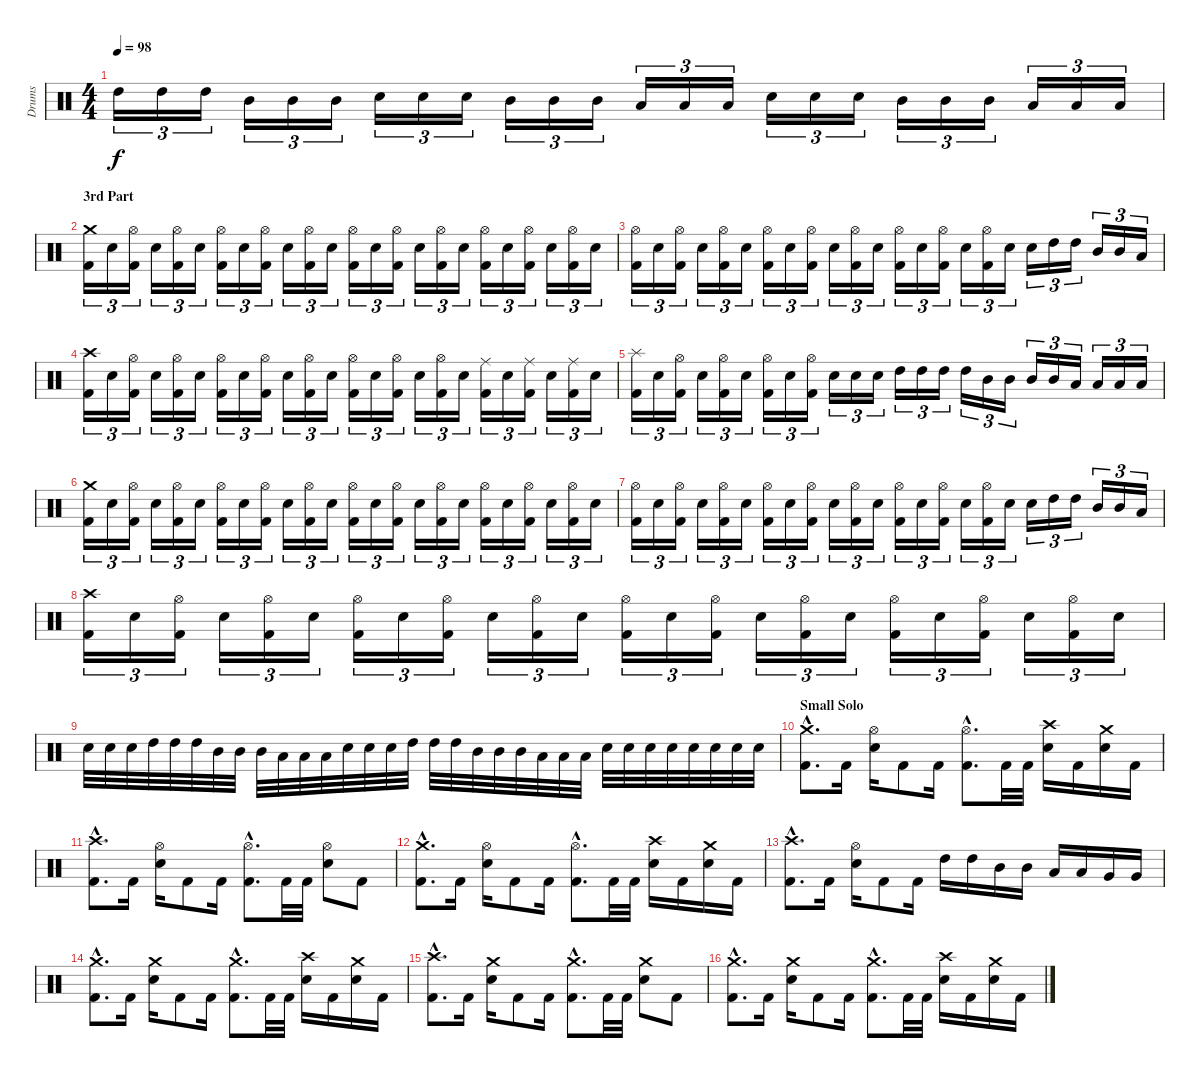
\track ("Drums" "Drums") {instrument percussion}
\staff {score}
\articulation defaults
\ts (4 4)
\tempo 98
\clef neutral
\ks c "High Tom (hit)".16{tu (3 2) dy f} "High Tom (hit)".16{tu (3 2)} "High Tom (hit)".16{tu (3 2)} "Mid Tom (hit)".16{tu (3 2)} "Mid Tom (hit)".16{tu (3 2)} "Mid Tom (hit)".16{tu (3 2)} "Electric Snare (hit)".16{tu (3 2)} "Electric Snare (hit)".16{tu (3 2)} "Electric Snare (hit)".16{tu (3 2)} "Mid Tom (hit)".16{tu (3 2)} "Mid Tom (hit)".16{tu (3 2)} "Mid Tom (hit)".16{tu (3 2)} "Low Tom (hit)".16{tu (3 2)} "Low Tom (hit)".16{tu (3 2)} "Low Tom (hit)".16{tu (3 2)} "Electric Snare (hit)".16{tu (3 2)} "Electric Snare (hit)".16{tu (3 2)} "Electric Snare (hit)".16{tu (3 2)} "Mid Tom (hit)".16{tu (3 2)} "Mid Tom (hit)".16{tu (3 2)} "Mid Tom (hit)".16{tu (3 2)} "Low Tom (hit)".16{tu (3 2)} "Low Tom (hit)".16{tu (3 2)} "Low Tom (hit)".16{tu (3 2)}
|
\section ("" "3rd Part")
("Kick (hit) 2" "Crash medium (hit)").16{tu (3 2)} "Electric Snare (hit)".16{tu (3 2)} ("Kick (hit) 2" "Hi-Hat (open)").16{tu (3 2)} "Electric Snare (hit)".16{tu (3 2)} ("Kick (hit) 2" "Hi-Hat (open)").16{tu (3 2)} "Electric Snare (hit)".16{tu (3 2)} ("Kick (hit) 2" "Hi-Hat (open)").16{tu (3 2)} "Electric Snare (hit)".16{tu (3 2)} ("Kick (hit) 2" "Hi-Hat (open)").16{tu (3 2)} "Electric Snare (hit)".16{tu (3 2)} ("Kick (hit) 2" "Hi-Hat (open)").16{tu (3 2)} "Electric Snare (hit)".16{tu (3 2)} ("Kick (hit) 2" "Hi-Hat (open)").16{tu (3 2)} "Electric Snare (hit)".16{tu (3 2)} ("Kick (hit) 2" "Hi-Hat (open)").16{tu (3 2)} "Electric Snare (hit)".16{tu (3 2)} ("Kick (hit) 2" "Hi-Hat (open)").16{tu (3 2)} "Electric Snare (hit)".16{tu (3 2)} ("Kick (hit) 2" "Hi-Hat (open)").16{tu (3 2)} "Electric Snare (hit)".16{tu (3 2)} ("Kick (hit) 2" "Hi-Hat (open)").16{tu (3 2)} "Electric Snare (hit)".16{tu (3 2)} ("Kick (hit) 2" "Hi-Hat (open)").16{tu (3 2)} "Electric Snare (hit)".16{tu (3 2)} |
("Kick (hit) 2" "Hi-Hat (open)").16{tu (3 2)} "Electric Snare (hit)".16{tu (3 2)} ("Kick (hit) 2" "Hi-Hat (open)").16{tu (3 2)} "Electric Snare (hit)".16{tu (3 2)} ("Kick (hit) 2" "Hi-Hat (open)").16{tu (3 2)} "Electric Snare (hit)".16{tu (3 2)} ("Kick (hit) 2" "Hi-Hat (open)").16{tu (3 2)} "Electric Snare (hit)".16{tu (3 2)} ("Kick (hit) 2" "Hi-Hat (open)").16{tu (3 2)} "Electric Snare (hit)".16{tu (3 2)} ("Kick (hit) 2" "Hi-Hat (open)").16{tu (3 2)} "Electric Snare (hit)".16{tu (3 2)} ("Kick (hit) 2" "Hi-Hat (open)").16{tu (3 2)} "Electric Snare (hit)".16{tu (3 2)} ("Kick (hit) 2" "Hi-Hat (open)").16{tu (3 2)} "Electric Snare (hit)".16{tu (3 2)} ("Kick (hit) 2" "Hi-Hat (open)").16{tu (3 2)} "Electric Snare (hit)".16{tu (3 2)} "Electric Snare (hit)".16{tu (3 2)} "High Tom (hit)".16{tu (3 2)} "High Tom (hit)".16{tu (3 2)} "Mid Tom (hit)".16{tu (3 2)} "Mid Tom (hit)".16{tu (3 2)} "Low Tom (hit)".16{tu (3 2)} |
("Kick (hit) 2" "Crash high (hit)").16{tu (3 2)} "Electric Snare (hit)".16{tu (3 2)} ("Kick (hit) 2" "Hi-Hat (open)").16{tu (3 2)} "Electric Snare (hit)".16{tu (3 2)} ("Kick (hit) 2" "Hi-Hat (open)").16{tu (3 2)} "Electric Snare (hit)".16{tu (3 2)} ("Kick (hit) 2" "Hi-Hat (open)").16{tu (3 2)} "Electric Snare (hit)".16{tu (3 2)} ("Kick (hit) 2" "Hi-Hat (open)").16{tu (3 2)} "Electric Snare (hit)".16{tu (3 2)} ("Kick (hit) 2" "Hi-Hat (open)").16{tu (3 2)} "Electric Snare (hit)".16{tu (3 2)} ("Kick (hit) 2" "Hi-Hat (open)").16{tu (3 2)} "Electric Snare (hit)".16{tu (3 2)} ("Kick (hit) 2" "Hi-Hat (open)").16{tu (3 2)} "Electric Snare (hit)".16{tu (3 2)} ("Kick (hit) 2" "Hi-Hat (open)").16{tu (3 2)} "Electric Snare (hit)".16{tu (3 2)} ("Kick (hit) 2" "Ride (middle)").16{tu (3 2)} "Electric Snare (hit)".16{tu (3 2)} ("Kick (hit) 2" "Ride (middle)").16{tu (3 2)} "Electric Snare (hit)".16{tu (3 2)} ("Kick (hit) 2" "Ride (middle)").16{tu (3 2)} "Electric Snare (hit)".16{tu (3 2)} |
("Kick (hit) 2" "Splash (hit)").16{tu (3 2)} "Electric Snare (hit)".16{tu (3 2)} ("Kick (hit) 2" "Hi-Hat (open)").16{tu (3 2)} "Electric Snare (hit)".16{tu (3 2)} ("Kick (hit) 2" "Hi-Hat (open)").16{tu (3 2)} "Electric Snare (hit)".16{tu (3 2)} ("Kick (hit) 2" "Hi-Hat (open)").16{tu (3 2)} "Electric Snare (hit)".16{tu (3 2)} ("Kick (hit) 2" "Hi-Hat (open)").16{tu (3 2)} "Electric Snare (hit)".16{tu (3 2)} "Electric Snare (hit)".16{tu (3 2)} "Electric Snare (hit)".16{tu (3 2)} "High Tom (hit)".16{tu (3 2)} "High Tom (hit)".16{tu (3 2)} "High Tom (hit)".16{tu (3 2)} "High Tom (hit)".16{tu (3 2)} "Mid Tom (hit)".16{tu (3 2)} "Mid Tom (hit)".16{tu (3 2)} "Mid Tom (hit)".16{tu (3 2)} "Mid Tom (hit)".16{tu (3 2)} "Low Tom (hit)".16{tu (3 2)} "Low Tom (hit)".16{tu (3 2)} "Low Tom (hit)".16{tu (3 2)} "Low Tom (hit)".16{tu (3 2)} |
("Kick (hit) 2" "Crash medium (hit)").16{tu (3 2)} "Electric Snare (hit)".16{tu (3 2)} ("Kick (hit) 2" "Hi-Hat (open)").16{tu (3 2)} "Electric Snare (hit)".16{tu (3 2)} ("Kick (hit) 2" "Hi-Hat (open)").16{tu (3 2)} "Electric Snare (hit)".16{tu (3 2)} ("Kick (hit) 2" "Hi-Hat (open)").16{tu (3 2)} "Electric Snare (hit)".16{tu (3 2)} ("Kick (hit) 2" "Hi-Hat (open)").16{tu (3 2)} "Electric Snare (hit)".16{tu (3 2)} ("Kick (hit) 2" "Hi-Hat (open)").16{tu (3 2)} "Electric Snare (hit)".16{tu (3 2)} ("Kick (hit) 2" "Hi-Hat (open)").16{tu (3 2)} "Electric Snare (hit)".16{tu (3 2)} ("Kick (hit) 2" "Hi-Hat (open)").16{tu (3 2)} "Electric Snare (hit)".16{tu (3 2)} ("Kick (hit) 2" "Hi-Hat (open)").16{tu (3 2)} "Electric Snare (hit)".16{tu (3 2)} ("Kick (hit) 2" "Hi-Hat (open)").16{tu (3 2)} "Electric Snare (hit)".16{tu (3 2)} ("Kick (hit) 2" "Hi-Hat (open)").16{tu (3 2)} "Electric Snare (hit)".16{tu (3 2)} ("Kick (hit) 2" "Hi-Hat (open)").16{tu (3 2)} "Electric Snare (hit)".16{tu (3 2)} |
("Kick (hit) 2" "Hi-Hat (open)").16{tu (3 2)} "Electric Snare (hit)".16{tu (3 2)} ("Kick (hit) 2" "Hi-Hat (open)").16{tu (3 2)} "Electric Snare (hit)".16{tu (3 2)} ("Kick (hit) 2" "Hi-Hat (open)").16{tu (3 2)} "Electric Snare (hit)".16{tu (3 2)} ("Kick (hit) 2" "Hi-Hat (open)").16{tu (3 2)} "Electric Snare (hit)".16{tu (3 2)} ("Kick (hit) 2" "Hi-Hat (open)").16{tu (3 2)} "Electric Snare (hit)".16{tu (3 2)} ("Kick (hit) 2" "Hi-Hat (open)").16{tu (3 2)} "Electric Snare (hit)".16{tu (3 2)} ("Kick (hit) 2" "Hi-Hat (open)").16{tu (3 2)} "Electric Snare (hit)".16{tu (3 2)} ("Kick (hit) 2" "Hi-Hat (open)").16{tu (3 2)} "Electric Snare (hit)".16{tu (3 2)} ("Kick (hit) 2" "Hi-Hat (open)").16{tu (3 2)} "Electric Snare (hit)".16{tu (3 2)} "Electric Snare (hit)".16{tu (3 2)} "High Tom (hit)".16{tu (3 2)} "High Tom (hit)".16{tu (3 2)} "Mid Tom (hit)".16{tu (3 2)} "Mid Tom (hit)".16{tu (3 2)} "Low Tom (hit)".16{tu (3 2)} |
("Kick (hit) 2" "Crash high (hit)").16{tu (3 2)} "Electric Snare (hit)".16{tu (3 2)} ("Kick (hit) 2" "Hi-Hat (open)").16{tu (3 2)} "Electric Snare (hit)".16{tu (3 2)} ("Kick (hit) 2" "Hi-Hat (open)").16{tu (3 2)} "Electric Snare (hit)".16{tu (3 2)} ("Kick (hit) 2" "Hi-Hat (open)").16{tu (3 2)} "Electric Snare (hit)".16{tu (3 2)} ("Kick (hit) 2" "Hi-Hat (open)").16{tu (3 2)} "Electric Snare (hit)".16{tu (3 2)} ("Kick (hit) 2" "Hi-Hat (open)").16{tu (3 2)} "Electric Snare (hit)".16{tu (3 2)} ("Kick (hit) 2" "Hi-Hat (open)").16{tu (3 2)} "Electric Snare (hit)".16{tu (3 2)} ("Kick (hit) 2" "Hi-Hat (open)").16{tu (3 2)} "Electric Snare (hit)".16{tu (3 2)} ("Kick (hit) 2" "Hi-Hat (open)").16{tu (3 2)} "Electric Snare (hit)".16{tu (3 2)} ("Kick (hit) 2" "Hi-Hat (open)").16{tu (3 2)} "Electric Snare (hit)".16{tu (3 2)} ("Kick (hit) 2" "Hi-Hat (open)").16{tu (3 2)} "Electric Snare (hit)".16{tu (3 2)} ("Kick (hit) 2" "Hi-Hat (open)").16{tu (3 2)} "Electric Snare (hit)".16{tu (3 2)} |
"Electric Snare (hit)".32 "Electric Snare (hit)".32 "Electric Snare (hit)".32 "High Tom (hit)".32 "High Tom (hit)".32 "High Tom (hit)".32 "Mid Tom (hit)".32 "Mid Tom (hit)".32 "Mid Tom (hit)".32 "Low Tom (hit)".32 "Low Tom (hit)".32 "Low Tom (hit)".32 "Electric Snare (hit)".32 "Electric Snare (hit)".32 "Electric Snare (hit)".32 "High Tom (hit)".32 "High Tom (hit)".32 "High Tom (hit)".32 "Mid Tom (hit)".32 "Mid Tom (hit)".32 "Mid Tom (hit)".32 "Low Tom (hit)".32 "Low Tom (hit)".32 "Low Tom (hit)".32 "Electric Snare (hit)".32 "Electric Snare (hit)".32 "Electric Snare (hit)".32 "Electric Snare (hit)".32 "Electric Snare (hit)".32 "Electric Snare (hit)".32 "Electric Snare (hit)".32 "Electric Snare (hit)".32 |
\section ("" "Small Solo")
("Kick (hit) 2"{hac} "Crash medium (hit)"{hac}).8{d} "Kick (hit) 2".16 ("Electric Snare (hit)" "Hi-Hat (open)").16 "Kick (hit) 2".8 "Kick (hit) 2".16 ("Kick (hit) 2"{hac} "Hi-Hat (open)"{hac}).8{d} "Kick (hit) 2".32 "Kick (hit) 2".32 ("Electric Snare (hit)" "Crash high (hit)").16 "Kick (hit) 2".16 ("Electric Snare (hit)" "Crash medium (hit)").16 "Kick (hit) 2".16 |
("Kick (hit) 2"{hac} "Crash high (hit)"{hac}).8{d} "Kick (hit) 2".16 ("Electric Snare (hit)" "Hi-Hat (open)").16 "Kick (hit) 2".8 "Kick (hit) 2".16 ("Kick (hit) 2"{hac} "Hi-Hat (open)"{hac}).8{d} "Kick (hit) 2".32 "Kick (hit) 2".32 ("Electric Snare (hit)" "Hi-Hat (open)").8 "Kick (hit) 2".8 |
("Kick (hit) 2"{hac} "Crash medium (hit)"{hac}).8{d} "Kick (hit) 2".16 ("Electric Snare (hit)" "Hi-Hat (open)").16 "Kick (hit) 2".8 "Kick (hit) 2".16 ("Kick (hit) 2"{hac} "Hi-Hat (open)"{hac}).8{d} "Kick (hit) 2".32 "Kick (hit) 2".32 ("Electric Snare (hit)" "Crash high (hit)").16 "Kick (hit) 2".16 ("Electric Snare (hit)" "Crash medium (hit)").16 "Kick (hit) 2".16 |
("Kick (hit) 2"{hac} "Crash high (hit)"{hac}).8{d} "Kick (hit) 2".16 ("Electric Snare (hit)" "Hi-Hat (open)").16 "Kick (hit) 2".8 "Kick (hit) 2".16 "High Tom (hit)".16 "High Tom (hit)".16 "Mid Tom (hit)".16 "Mid Tom (hit)".16 "Low Tom (hit)".16 "Low Tom (hit)".16 "Very Low Tom (hit)".16 "Very Low Tom (hit)".16 |
("Kick (hit) 2"{hac} "Crash medium (hit)"{hac}).8{d} "Kick (hit) 2".16 ("Electric Snare (hit)" "Crash medium (hit)").16 "Kick (hit) 2".8 "Kick (hit) 2".16 ("Kick (hit) 2"{hac} "Crash medium (hit)"{hac}).8{d} "Kick (hit) 2".32 "Kick (hit) 2".32 ("Electric Snare (hit)" "Crash high (hit)").16 "Kick (hit) 2".16 ("Electric Snare (hit)" "Crash medium (hit)").16 "Kick (hit) 2".16 |
("Kick (hit) 2"{hac} "Crash high (hit)"{hac}).8{d} "Kick (hit) 2".16 ("Electric Snare (hit)" "Crash medium (hit)").16 "Kick (hit) 2".8 "Kick (hit) 2".16 ("Kick (hit) 2"{hac} "Crash medium (hit)"{hac}).8{d} "Kick (hit) 2".32 "Kick (hit) 2".32 ("Electric Snare (hit)" "Crash medium (hit)").8 "Kick (hit) 2".8 |
("Kick (hit) 2"{hac} "Crash medium (hit)"{hac}).8{d} "Kick (hit) 2".16 ("Electric Snare (hit)" "Crash medium (hit)").16 "Kick (hit) 2".8 "Kick (hit) 2".16 ("Kick (hit) 2"{hac} "Crash medium (hit)"{hac}).8{d} "Kick (hit) 2".32 "Kick (hit) 2".32 ("Electric Snare (hit)" "Crash high (hit)").16 "Kick (hit) 2".16 ("Electric Snare (hit)" "Crash medium (hit)").16 "Kick (hit) 2".16
